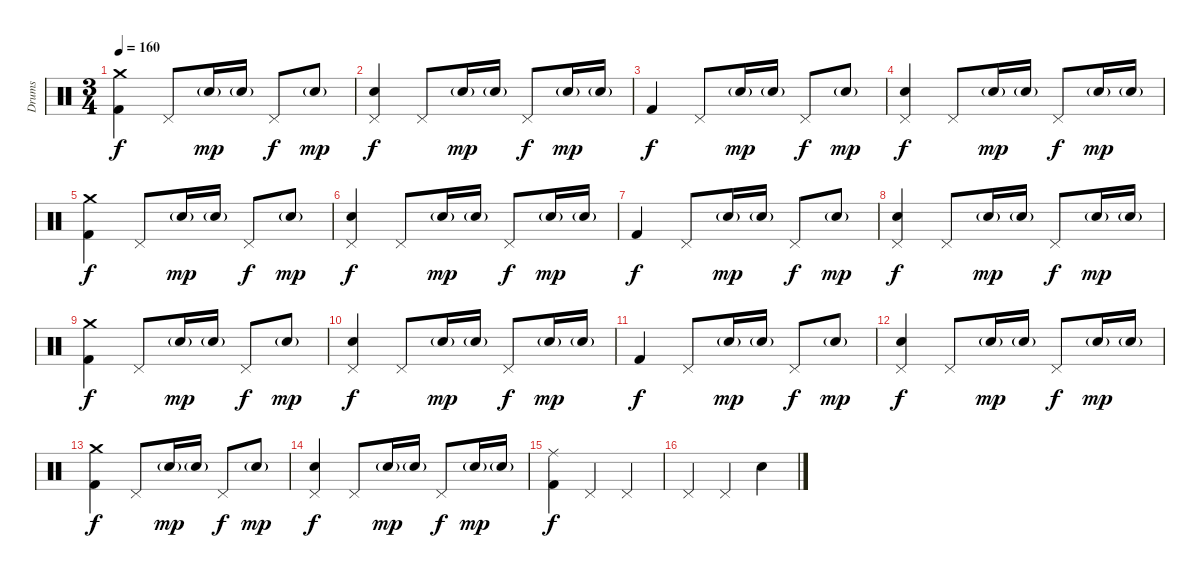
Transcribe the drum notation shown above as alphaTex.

\track ("Drums" "Drums") {instrument percussion}
\staff {score}
\articulation defaults
\ts (3 4)
\tempo 160
\clef neutral
\ks c
("Crash medium (hit)" "Kick (hit) 2").4{dy f} "Pedal Hi-Hat (hit)".8 "Snare (hit) 2"{g}.16{dy mp} "Snare (hit) 2"{g}.16 "Pedal Hi-Hat (hit)".8{dy f} "Snare (hit) 2"{g}.8{dy mp} |
("Pedal Hi-Hat (hit)" "Snare (hit) 2").4{dy f} "Pedal Hi-Hat (hit)".8 "Snare (hit) 2"{g}.16{dy mp} "Snare (hit) 2"{g}.16 "Pedal Hi-Hat (hit)".8{dy f} "Snare (hit) 2"{g}.16{dy mp} "Snare (hit) 2"{g}.16 |
"Kick (hit) 2".4{dy f} "Pedal Hi-Hat (hit)".8 "Snare (hit) 2"{g}.16{dy mp} "Snare (hit) 2"{g}.16 "Pedal Hi-Hat (hit)".8{dy f} "Snare (hit) 2"{g}.8{dy mp} |
("Pedal Hi-Hat (hit)" "Snare (hit) 2").4{dy f} "Pedal Hi-Hat (hit)".8 "Snare (hit) 2"{g}.16{dy mp} "Snare (hit) 2"{g}.16 "Pedal Hi-Hat (hit)".8{dy f} "Snare (hit) 2"{g}.16{dy mp} "Snare (hit) 2"{g}.16 |
("Crash medium (hit)" "Kick (hit) 2").4{dy f} "Pedal Hi-Hat (hit)".8 "Snare (hit) 2"{g}.16{dy mp} "Snare (hit) 2"{g}.16 "Pedal Hi-Hat (hit)".8{dy f} "Snare (hit) 2"{g}.8{dy mp} |
("Pedal Hi-Hat (hit)" "Snare (hit) 2").4{dy f} "Pedal Hi-Hat (hit)".8 "Snare (hit) 2"{g}.16{dy mp} "Snare (hit) 2"{g}.16 "Pedal Hi-Hat (hit)".8{dy f} "Snare (hit) 2"{g}.16{dy mp} "Snare (hit) 2"{g}.16 |
"Kick (hit) 2".4{dy f} "Pedal Hi-Hat (hit)".8 "Snare (hit) 2"{g}.16{dy mp} "Snare (hit) 2"{g}.16 "Pedal Hi-Hat (hit)".8{dy f} "Snare (hit) 2"{g}.8{dy mp} |
("Pedal Hi-Hat (hit)" "Snare (hit) 2").4{dy f} "Pedal Hi-Hat (hit)".8 "Snare (hit) 2"{g}.16{dy mp} "Snare (hit) 2"{g}.16 "Pedal Hi-Hat (hit)".8{dy f} "Snare (hit) 2"{g}.16{dy mp} "Snare (hit) 2"{g}.16 |
("Crash medium (hit)" "Kick (hit) 2").4{dy f} "Pedal Hi-Hat (hit)".8 "Snare (hit) 2"{g}.16{dy mp} "Snare (hit) 2"{g}.16 "Pedal Hi-Hat (hit)".8{dy f} "Snare (hit) 2"{g}.8{dy mp} |
("Pedal Hi-Hat (hit)" "Snare (hit) 2").4{dy f} "Pedal Hi-Hat (hit)".8 "Snare (hit) 2"{g}.16{dy mp} "Snare (hit) 2"{g}.16 "Pedal Hi-Hat (hit)".8{dy f} "Snare (hit) 2"{g}.16{dy mp} "Snare (hit) 2"{g}.16 |
"Kick (hit) 2".4{dy f} "Pedal Hi-Hat (hit)".8 "Snare (hit) 2"{g}.16{dy mp} "Snare (hit) 2"{g}.16 "Pedal Hi-Hat (hit)".8{dy f} "Snare (hit) 2"{g}.8{dy mp} |
("Pedal Hi-Hat (hit)" "Snare (hit) 2").4{dy f} "Pedal Hi-Hat (hit)".8 "Snare (hit) 2"{g}.16{dy mp} "Snare (hit) 2"{g}.16 "Pedal Hi-Hat (hit)".8{dy f} "Snare (hit) 2"{g}.16{dy mp} "Snare (hit) 2"{g}.16 |
("Crash medium (hit)" "Kick (hit) 2").4{dy f} "Pedal Hi-Hat (hit)".8 "Snare (hit) 2"{g}.16{dy mp} "Snare (hit) 2"{g}.16 "Pedal Hi-Hat (hit)".8{dy f} "Snare (hit) 2"{g}.8{dy mp} |
("Pedal Hi-Hat (hit)" "Snare (hit) 2").4{dy f} "Pedal Hi-Hat (hit)".8 "Snare (hit) 2"{g}.16{dy mp} "Snare (hit) 2"{g}.16 "Pedal Hi-Hat (hit)".8{dy f} "Snare (hit) 2"{g}.16{dy mp} "Snare (hit) 2"{g}.16 |
("Ride (middle)" "Kick (hit) 2").4{dy f} "Pedal Hi-Hat (hit)".4 "Pedal Hi-Hat (hit)".4 |
"Pedal Hi-Hat (hit)".4 "Pedal Hi-Hat (hit)".4 "Snare (hit) 2".4
